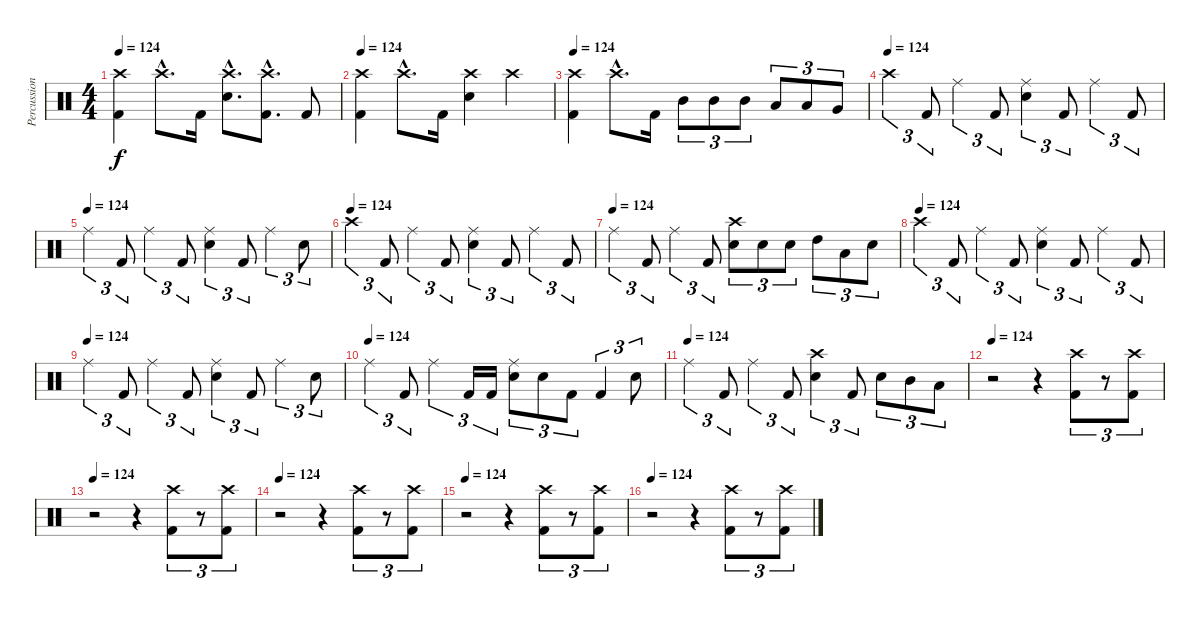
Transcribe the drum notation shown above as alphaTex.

\track ("Percussion" "Percussion") {instrument percussion}
\staff {score}
\articulation defaults
\ts (4 4)
\tempo 124
\clef neutral
\ks c
("Crash high (hit)" "Kick (hit) 2").4{dy f} "Crash high (hit)"{hac}.8{d} "Kick (hit) 2".16 ("Crash high (hit)"{hac} "Electric Snare (hit)"{hac}).8{d} ("Crash high (hit)"{hac} "Kick (hit) 2"{hac}).8{d} "Kick (hit) 2".8 |
\tempo 124
("Crash high (hit)" "Kick (hit) 2").4 "Crash high (hit)"{hac}.8{d} "Kick (hit) 2".16 ("Crash high (hit)" "Electric Snare (hit)").4 "Crash high (hit)".4 |
\tempo 124
("Crash high (hit)" "Kick (hit) 2").4 "Crash high (hit)"{hac}.8{d} "Kick (hit) 2".16 "Mid Tom (hit)".8{tu (3 2)} "Mid Tom (hit)".8{tu (3 2)} "Mid Tom (hit)".8{tu (3 2)} "Low Tom (hit)".8{tu (3 2)} "Low Tom (hit)".8{tu (3 2)} "Very Low Tom (hit)".8{tu (3 2)} |
\tempo (124)
"Crash high (hit)".4{tu (3 2)} "Kick (hit) 2".8{tu (3 2)} "Ride (middle)".4{tu (3 2)} "Kick (hit) 2".8{tu (3 2)} ("Ride (middle)" "Electric Snare (hit)").4{tu (3 2)} "Kick (hit) 2".8{tu (3 2)} "Ride (middle)".4{tu (3 2)} "Kick (hit) 2".8{tu (3 2)} |
\tempo (124)
"Ride (middle)".4{tu (3 2)} "Kick (hit) 2".8{tu (3 2)} "Ride (middle)".4{tu (3 2)} "Kick (hit) 2".8{tu (3 2)} ("Ride (middle)" "Electric Snare (hit)").4{tu (3 2)} "Kick (hit) 2".8{tu (3 2)} "Ride (middle)".4{tu (3 2)} "Electric Snare (hit)".8{tu (3 2)} |
\tempo (124)
"Crash high (hit)".4{tu (3 2)} "Kick (hit) 2".8{tu (3 2)} "Ride (middle)".4{tu (3 2)} "Kick (hit) 2".8{tu (3 2)} ("Ride (middle)" "Electric Snare (hit)").4{tu (3 2)} "Kick (hit) 2".8{tu (3 2)} "Ride (middle)".4{tu (3 2)} "Kick (hit) 2".8{tu (3 2)} |
\tempo (124)
"Ride (middle)".4{tu (3 2)} "Kick (hit) 2".8{tu (3 2)} "Ride (middle)".4{tu (3 2)} "Kick (hit) 2".8{tu (3 2)} ("Crash high (hit)" "Electric Snare (hit)").8{tu (3 2)} "Electric Snare (hit)".8{tu (3 2)} "Electric Snare (hit)".8{tu (3 2)} "High Tom (hit)".8{tu (3 2)} "Low Tom (hit)".8{tu (3 2)} "Electric Snare (hit)".8{tu (3 2)} |
\tempo (124)
"Crash high (hit)".4{tu (3 2)} "Kick (hit) 2".8{tu (3 2)} "Ride (middle)".4{tu (3 2)} "Kick (hit) 2".8{tu (3 2)} ("Ride (middle)" "Electric Snare (hit)").4{tu (3 2)} "Kick (hit) 2".8{tu (3 2)} "Ride (middle)".4{tu (3 2)} "Kick (hit) 2".8{tu (3 2)} |
\tempo (124)
"Ride (middle)".4{tu (3 2)} "Kick (hit) 2".8{tu (3 2)} "Ride (middle)".4{tu (3 2)} "Kick (hit) 2".8{tu (3 2)} ("Ride (middle)" "Electric Snare (hit)").4{tu (3 2)} "Kick (hit) 2".8{tu (3 2)} "Ride (middle)".4{tu (3 2)} "Electric Snare (hit)".8{tu (3 2)} |
\tempo (124)
"Ride (middle)".4{tu (3 2)} "Kick (hit) 2".8{tu (3 2)} "Ride (middle)".4{tu (3 2)} "Kick (hit) 2".16{tu (3 2)} "Kick (hit) 2".16{tu (3 2)} ("Ride (middle)" "Electric Snare (hit)").8{tu (3 2)} "Electric Snare (hit)".8{tu (3 2)} "Kick (hit) 2".8{tu (3 2)} "Kick (hit) 2".4{tu (3 2)} "Electric Snare (hit)".8{tu (3 2)} |
\tempo (124)
"Ride (middle)".4{tu (3 2)} "Kick (hit) 2".8{tu (3 2)} "Ride (middle)".4{tu (3 2)} "Kick (hit) 2".8{tu (3 2)} ("Crash high (hit)" "Electric Snare (hit)").4{tu (3 2)} "Kick (hit) 2".8{tu (3 2)} "Electric Snare (hit)".8{tu (3 2)} "Mid Tom (hit)".8{tu (3 2)} "Low Tom (hit)".8{tu (3 2)} |
\tempo 124
r.2 r.4 ("Crash high (hit)" "Kick (hit) 2").8{tu (3 2)} r.8{tu (3 2)} ("Crash high (hit)" "Kick (hit) 2").8{tu (3 2)} |
\tempo 124
r.2 r.4 ("Crash high (hit)" "Kick (hit) 2").8{tu (3 2)} r.8{tu (3 2)} ("Crash high (hit)" "Kick (hit) 2").8{tu (3 2)} |
\tempo 124
r.2 r.4 ("Crash high (hit)" "Kick (hit) 2").8{tu (3 2)} r.8{tu (3 2)} ("Crash high (hit)" "Kick (hit) 2").8{tu (3 2)} |
\tempo 124
r.2 r.4 ("Crash high (hit)" "Kick (hit) 2").8{tu (3 2)} r.8{tu (3 2)} ("Crash high (hit)" "Kick (hit) 2").8{tu (3 2)} |
\tempo 124
r.2 r.4 ("Crash high (hit)" "Kick (hit) 2").8{tu (3 2)} r.8{tu (3 2)} ("Crash high (hit)" "Kick (hit) 2").8{tu (3 2)}
